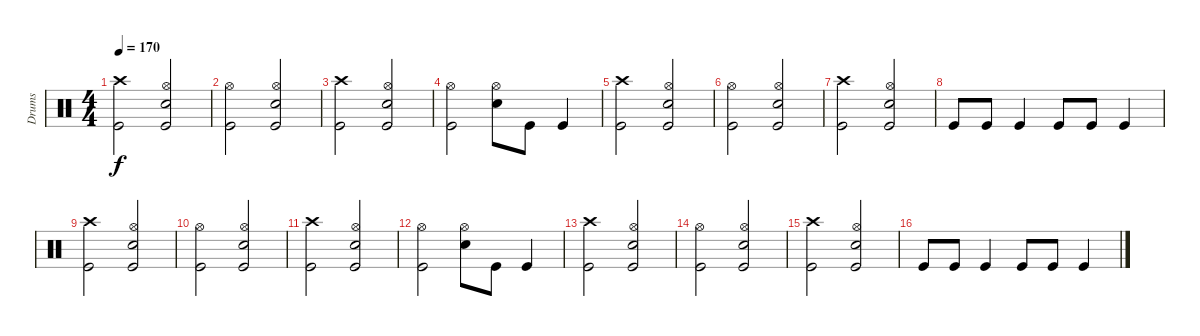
\track ("Drums" "Drums") {instrument percussion}
\staff {score}
\articulation defaults
\ts (4 4)
\tempo 170
\clef neutral
\ks c
("Crash high (hit)" "Kick (hit)").2{dy f} ("Hi-Hat (open)" "Snare (hit) 2" "Kick (hit)").2 |
("Hi-Hat (open)" "Kick (hit)").2 ("Hi-Hat (open)" "Snare (hit) 2" "Kick (hit)").2 |
("Crash high (hit)" "Kick (hit)").2 ("Hi-Hat (open)" "Snare (hit) 2" "Kick (hit)").2 |
("Hi-Hat (open)" "Kick (hit)").2 ("Hi-Hat (open)" "Snare (hit) 2").8 "Kick (hit)".8 "Kick (hit)".4 |
("Crash high (hit)" "Kick (hit)").2 ("Hi-Hat (open)" "Snare (hit) 2" "Kick (hit)").2 |
("Hi-Hat (open)" "Kick (hit)").2 ("Hi-Hat (open)" "Snare (hit) 2" "Kick (hit)").2 |
("Crash high (hit)" "Kick (hit)").2 ("Hi-Hat (open)" "Snare (hit) 2" "Kick (hit)").2 |
"Kick (hit)".8 "Kick (hit)".8 "Kick (hit)".4 "Kick (hit)".8 "Kick (hit)".8 "Kick (hit)".4 |
("Crash high (hit)" "Kick (hit)").2 ("Hi-Hat (open)" "Snare (hit) 2" "Kick (hit)").2 |
("Hi-Hat (open)" "Kick (hit)").2 ("Hi-Hat (open)" "Snare (hit) 2" "Kick (hit)").2 |
("Crash high (hit)" "Kick (hit)").2 ("Hi-Hat (open)" "Snare (hit) 2" "Kick (hit)").2 |
("Hi-Hat (open)" "Kick (hit)").2 ("Hi-Hat (open)" "Snare (hit) 2").8 "Kick (hit)".8 "Kick (hit)".4 |
("Crash high (hit)" "Kick (hit)").2 ("Hi-Hat (open)" "Snare (hit) 2" "Kick (hit)").2 |
("Hi-Hat (open)" "Kick (hit)").2 ("Hi-Hat (open)" "Snare (hit) 2" "Kick (hit)").2 |
("Crash high (hit)" "Kick (hit)").2 ("Hi-Hat (open)" "Snare (hit) 2" "Kick (hit)").2 |
"Kick (hit)".8 "Kick (hit)".8 "Kick (hit)".4 "Kick (hit)".8 "Kick (hit)".8 "Kick (hit)".4
